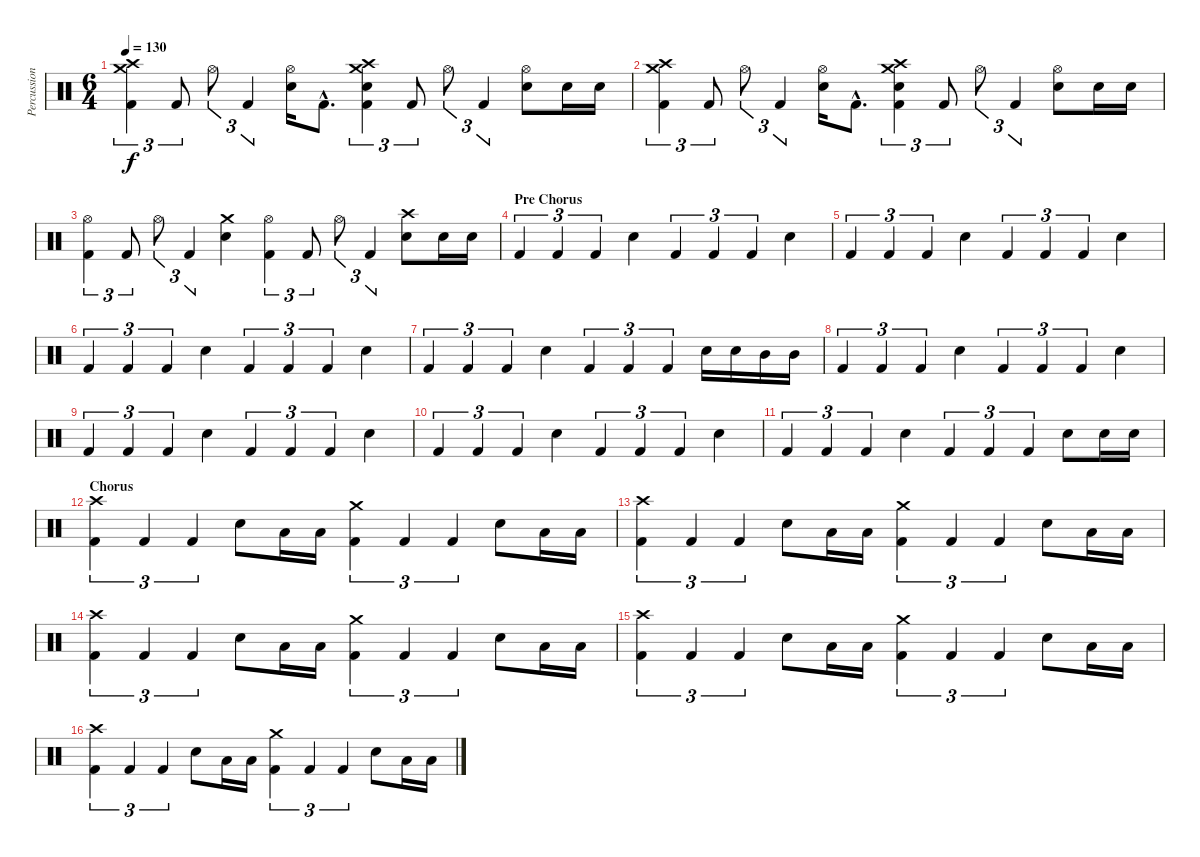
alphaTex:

\track ("Percussion" "Percussion") {instrument percussion}
\staff {score}
\articulation defaults
\ts (6 4)
\tempo 130
\clef neutral
\ks c
("Crash medium (hit)" "Crash high (hit)" "Kick (hit) 2").4{tu (3 2) dy f} "Kick (hit) 2".8{tu (3 2)} "Hi-Hat (open)".8{tu (3 2)} "Kick (hit) 2".4{tu (3 2)} ("Hi-Hat (open)" "Electric Snare (hit)").16 "Kick (hit) 2"{hac}.8{d} ("Crash medium (hit)" "Crash high (hit)" "Electric Snare (hit)" "Kick (hit) 2").4{tu (3 2)} "Kick (hit) 2".8{tu (3 2)} "Hi-Hat (open)".8{tu (3 2)} "Kick (hit) 2".4{tu (3 2)} ("Hi-Hat (open)" "Electric Snare (hit)").8 "Electric Snare (hit)".16 "Electric Snare (hit)".16 |
("Crash medium (hit)" "Crash high (hit)" "Kick (hit) 2").4{tu (3 2)} "Kick (hit) 2".8{tu (3 2)} "Hi-Hat (open)".8{tu (3 2)} "Kick (hit) 2".4{tu (3 2)} ("Hi-Hat (open)" "Electric Snare (hit)").16 "Kick (hit) 2"{hac}.8{d} ("Crash medium (hit)" "Crash high (hit)" "Electric Snare (hit)" "Kick (hit) 2").4{tu (3 2)} "Kick (hit) 2".8{tu (3 2)} "Hi-Hat (open)".8{tu (3 2)} "Kick (hit) 2".4{tu (3 2)} ("Hi-Hat (open)" "Electric Snare (hit)").8 "Electric Snare (hit)".16 "Electric Snare (hit)".16 |
("Hi-Hat (open)" "Kick (hit) 2").4{tu (3 2)} "Kick (hit) 2".8{tu (3 2)} "Hi-Hat (open)".8{tu (3 2)} "Kick (hit) 2".4{tu (3 2)} ("Crash medium (hit)" "Electric Snare (hit)").4 ("Hi-Hat (open)" "Kick (hit) 2").4{tu (3 2)} "Kick (hit) 2".8{tu (3 2)} "Hi-Hat (open)".8{tu (3 2)} "Kick (hit) 2".4{tu (3 2)} ("Crash high (hit)" "Electric Snare (hit)").8 "Electric Snare (hit)".16 "Electric Snare (hit)".16 |
\section ("" "Pre Chorus")
"Kick (hit) 2".4{tu (3 2)} "Kick (hit) 2".4{tu (3 2)} "Kick (hit) 2".4{tu (3 2)} "Electric Snare (hit)".4 "Kick (hit) 2".4{tu (3 2)} "Kick (hit) 2".4{tu (3 2)} "Kick (hit) 2".4{tu (3 2)} "Electric Snare (hit)".4 |
"Kick (hit) 2".4{tu (3 2)} "Kick (hit) 2".4{tu (3 2)} "Kick (hit) 2".4{tu (3 2)} "Electric Snare (hit)".4 "Kick (hit) 2".4{tu (3 2)} "Kick (hit) 2".4{tu (3 2)} "Kick (hit) 2".4{tu (3 2)} "Electric Snare (hit)".4 |
"Kick (hit) 2".4{tu (3 2)} "Kick (hit) 2".4{tu (3 2)} "Kick (hit) 2".4{tu (3 2)} "Electric Snare (hit)".4 "Kick (hit) 2".4{tu (3 2)} "Kick (hit) 2".4{tu (3 2)} "Kick (hit) 2".4{tu (3 2)} "Electric Snare (hit)".4 |
"Kick (hit) 2".4{tu (3 2)} "Kick (hit) 2".4{tu (3 2)} "Kick (hit) 2".4{tu (3 2)} "Electric Snare (hit)".4 "Kick (hit) 2".4{tu (3 2)} "Kick (hit) 2".4{tu (3 2)} "Kick (hit) 2".4{tu (3 2)} "Electric Snare (hit)".16 "Electric Snare (hit)".16 "Mid Tom (hit)".16 "Mid Tom (hit)".16 |
"Kick (hit) 2".4{tu (3 2)} "Kick (hit) 2".4{tu (3 2)} "Kick (hit) 2".4{tu (3 2)} "Electric Snare (hit)".4 "Kick (hit) 2".4{tu (3 2)} "Kick (hit) 2".4{tu (3 2)} "Kick (hit) 2".4{tu (3 2)} "Electric Snare (hit)".4 |
"Kick (hit) 2".4{tu (3 2)} "Kick (hit) 2".4{tu (3 2)} "Kick (hit) 2".4{tu (3 2)} "Electric Snare (hit)".4 "Kick (hit) 2".4{tu (3 2)} "Kick (hit) 2".4{tu (3 2)} "Kick (hit) 2".4{tu (3 2)} "Electric Snare (hit)".4 |
"Kick (hit) 2".4{tu (3 2)} "Kick (hit) 2".4{tu (3 2)} "Kick (hit) 2".4{tu (3 2)} "Electric Snare (hit)".4 "Kick (hit) 2".4{tu (3 2)} "Kick (hit) 2".4{tu (3 2)} "Kick (hit) 2".4{tu (3 2)} "Electric Snare (hit)".4 |
"Kick (hit) 2".4{tu (3 2)} "Kick (hit) 2".4{tu (3 2)} "Kick (hit) 2".4{tu (3 2)} "Electric Snare (hit)".4 "Kick (hit) 2".4{tu (3 2)} "Kick (hit) 2".4{tu (3 2)} "Kick (hit) 2".4{tu (3 2)} "Electric Snare (hit)".8 "Electric Snare (hit)".16 "Electric Snare (hit)".16 |
\section ("" "Chorus")
("Crash high (hit)" "Kick (hit) 2").4{tu (3 2)} "Kick (hit) 2".4{tu (3 2)} "Kick (hit) 2".4{tu (3 2)} "Electric Snare (hit)".8 "Low Floor Tom (hit)".16 "Low Floor Tom (hit)".16 ("Crash medium (hit)" "Kick (hit) 2").4{tu (3 2)} "Kick (hit) 2".4{tu (3 2)} "Kick (hit) 2".4{tu (3 2)} "Electric Snare (hit)".8 "Low Tom (hit)".16 "Low Tom (hit)".16 |
("Crash high (hit)" "Kick (hit) 2").4{tu (3 2)} "Kick (hit) 2".4{tu (3 2)} "Kick (hit) 2".4{tu (3 2)} "Electric Snare (hit)".8 "Low Floor Tom (hit)".16 "Low Floor Tom (hit)".16 ("Crash medium (hit)" "Kick (hit) 2").4{tu (3 2)} "Kick (hit) 2".4{tu (3 2)} "Kick (hit) 2".4{tu (3 2)} "Electric Snare (hit)".8 "Low Tom (hit)".16 "Low Tom (hit)".16 |
("Crash high (hit)" "Kick (hit) 2").4{tu (3 2)} "Kick (hit) 2".4{tu (3 2)} "Kick (hit) 2".4{tu (3 2)} "Electric Snare (hit)".8 "Low Floor Tom (hit)".16 "Low Floor Tom (hit)".16 ("Crash medium (hit)" "Kick (hit) 2").4{tu (3 2)} "Kick (hit) 2".4{tu (3 2)} "Kick (hit) 2".4{tu (3 2)} "Electric Snare (hit)".8 "Low Tom (hit)".16 "Low Tom (hit)".16 |
("Crash high (hit)" "Kick (hit) 2").4{tu (3 2)} "Kick (hit) 2".4{tu (3 2)} "Kick (hit) 2".4{tu (3 2)} "Electric Snare (hit)".8 "Low Floor Tom (hit)".16 "Low Floor Tom (hit)".16 ("Crash medium (hit)" "Kick (hit) 2").4{tu (3 2)} "Kick (hit) 2".4{tu (3 2)} "Kick (hit) 2".4{tu (3 2)} "Electric Snare (hit)".8 "Low Tom (hit)".16 "Low Tom (hit)".16 |
("Crash high (hit)" "Kick (hit) 2").4{tu (3 2)} "Kick (hit) 2".4{tu (3 2)} "Kick (hit) 2".4{tu (3 2)} "Electric Snare (hit)".8 "Low Floor Tom (hit)".16 "Low Floor Tom (hit)".16 ("Crash medium (hit)" "Kick (hit) 2").4{tu (3 2)} "Kick (hit) 2".4{tu (3 2)} "Kick (hit) 2".4{tu (3 2)} "Electric Snare (hit)".8 "Low Tom (hit)".16 "Low Tom (hit)".16
